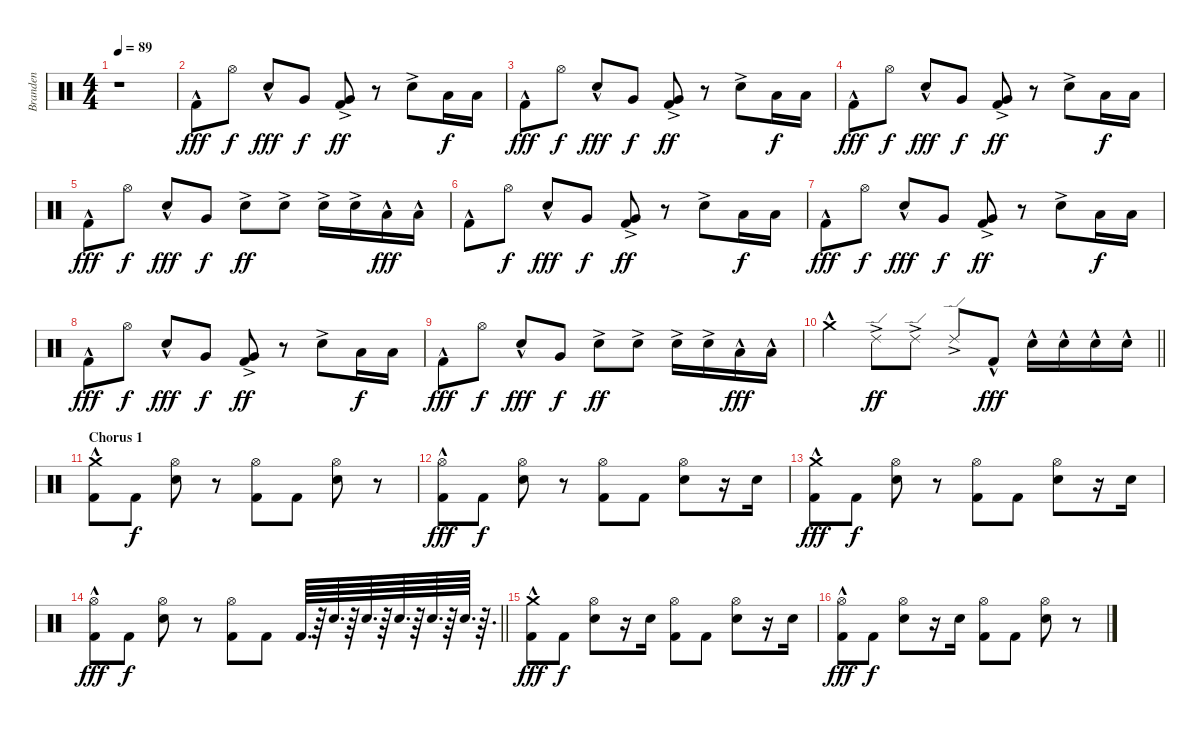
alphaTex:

\track ("Branden" "Branden") {instrument percussion}
\staff {score}
\articulation defaults
\ts (4 4)
\tempo 89
\clef neutral
\ks c
r.1{dy f} |
"Kick (hit) 2"{hac}.8{dy fff} "Hi-Hat (open)".8{dy f} "Electric Snare (hit)"{hac}.8{dy fff} "Very Low Tom (hit)".8{dy f} ("Very Low Tom (hit)" "Kick (hit) 2"{ac}).8{dy ff} r.8 "Electric Snare (hit)"{ac}.8 "Low Floor Tom (hit)".16{dy f} "Low Floor Tom (hit)".16 |
"Kick (hit) 2"{hac}.8{dy fff} "Hi-Hat (open)".8{dy f} "Electric Snare (hit)"{hac}.8{dy fff} "Very Low Tom (hit)".8{dy f} ("Very Low Tom (hit)" "Kick (hit) 2"{ac}).8{dy ff} r.8 "Electric Snare (hit)"{ac}.8 "Low Floor Tom (hit)".16{dy f} "Low Floor Tom (hit)".16 |
"Kick (hit) 2"{hac}.8{dy fff} "Hi-Hat (open)".8{dy f} "Electric Snare (hit)"{hac}.8{dy fff} "Very Low Tom (hit)".8{dy f} ("Very Low Tom (hit)" "Kick (hit) 2"{ac}).8{dy ff} r.8 "Electric Snare (hit)"{ac}.8 "Low Floor Tom (hit)".16{dy f} "Low Floor Tom (hit)".16 |
"Kick (hit) 2"{hac}.8{dy fff} "Hi-Hat (open)".8{dy f} "Electric Snare (hit)"{hac}.8{dy fff} "Very Low Tom (hit)".8{dy f} "Electric Snare (hit)"{ac}.8{dy ff} "Electric Snare (hit)"{ac}.8 "Electric Snare (hit)"{ac}.16 "Electric Snare (hit)"{ac}.16 "Low Floor Tom (hit)"{hac}.16{dy fff} "Low Floor Tom (hit)"{hac}.16 |
"Kick (hit) 2"{hac}.8 "Hi-Hat (open)".8{dy f} "Electric Snare (hit)"{hac}.8{dy fff} "Very Low Tom (hit)".8{dy f} ("Very Low Tom (hit)" "Kick (hit) 2"{ac}).8{dy ff} r.8 "Electric Snare (hit)"{ac}.8 "Low Floor Tom (hit)".16{dy f} "Low Floor Tom (hit)".16 |
"Kick (hit) 2"{hac}.8{dy fff} "Hi-Hat (open)".8{dy f} "Electric Snare (hit)"{hac}.8{dy fff} "Very Low Tom (hit)".8{dy f} ("Very Low Tom (hit)" "Kick (hit) 2"{ac}).8{dy ff} r.8 "Electric Snare (hit)"{ac}.8 "Low Floor Tom (hit)".16{dy f} "Low Floor Tom (hit)".16 |
"Kick (hit) 2"{hac}.8{dy fff} "Hi-Hat (open)".8{dy f} "Electric Snare (hit)"{hac}.8{dy fff} "Very Low Tom (hit)".8{dy f} ("Very Low Tom (hit)" "Kick (hit) 2"{ac}).8{dy ff} r.8 "Electric Snare (hit)"{ac}.8 "Low Floor Tom (hit)".16{dy f} "Low Floor Tom (hit)".16 |
"Kick (hit) 2"{hac}.8{dy fff} "Hi-Hat (open)".8{dy f} "Electric Snare (hit)"{hac}.8{dy fff} "Very Low Tom (hit)".8{dy f} "Electric Snare (hit)"{ac}.8{dy ff} "Electric Snare (hit)"{ac}.8 "Electric Snare (hit)"{ac}.16 "Electric Snare (hit)"{ac}.16 "Low Floor Tom (hit)"{hac}.16{dy fff} "Low Floor Tom (hit)"{hac}.16 |
\barLineRight lightlight "Crash medium (hit)"{hac}.4 "Ride (edge) 2"{ac}.8{dy ff} "Ride (edge) 2"{ac}.8 "Ride (edge) 2"{ac}.8 "Kick (hit) 2"{hac}.8{dy fff} "Electric Snare (hit)"{hac}.16 "Electric Snare (hit)"{hac}.16 "Electric Snare (hit)"{hac}.16 "Electric Snare (hit)"{hac}.16
|
\section ("" "Chorus 1")
("Crash medium (hit)"{hac} "Kick (hit) 2").8 "Kick (hit) 2".8{dy f} ("Hi-Hat (open)" "Electric Snare (hit)").8 r.8 ("Hi-Hat (open)" "Kick (hit) 2").8 "Kick (hit) 2".8 ("Hi-Hat (open)" "Electric Snare (hit)").8 r.8 |
("Hi-Hat (open)"{hac} "Kick (hit) 2").8{dy fff} "Kick (hit) 2".8{dy f} ("Hi-Hat (open)" "Electric Snare (hit)").8 r.8 ("Hi-Hat (open)" "Kick (hit) 2").8 "Kick (hit) 2".8 ("Hi-Hat (open)" "Electric Snare (hit)").8 r.16 "Electric Snare (hit)".16 |
("Crash medium (hit)"{hac} "Kick (hit) 2").8{dy fff} "Kick (hit) 2".8{dy f} ("Hi-Hat (open)" "Electric Snare (hit)").8 r.8 ("Hi-Hat (open)" "Kick (hit) 2").8 "Kick (hit) 2".8 ("Hi-Hat (open)" "Electric Snare (hit)").8 r.16 "Electric Snare (hit)".16 |
\barLineRight lightlight
("Hi-Hat (open)" "Kick (hit) 2"{hac}).8{dy fff} "Kick (hit) 2".8{dy f} ("Hi-Hat (open)" "Electric Snare (hit)").8 r.8 ("Hi-Hat (open)" "Kick (hit) 2").8 "Kick (hit) 2".8 "Kick (hit) 2".64{d} r.64 "Electric Snare (hit)".64{d} r.64 "Electric Snare (hit)".64{d} r.64 "Electric Snare (hit)".64{d} r.64 "Electric Snare (hit)".64{d} r.64 "Electric Snare (hit)".64{d} r.64{d} |
("Crash medium (hit)"{hac} "Kick (hit) 2").8{dy fff} "Kick (hit) 2".8{dy f} ("Hi-Hat (open)" "Electric Snare (hit)").8 r.16 "Electric Snare (hit)".16 ("Hi-Hat (open)" "Kick (hit) 2").8 "Kick (hit) 2".8 ("Hi-Hat (open)" "Electric Snare (hit)").8 r.16 "Electric Snare (hit)".16 |
("Hi-Hat (open)"{hac} "Kick (hit) 2").8{dy fff} "Kick (hit) 2".8{dy f} ("Hi-Hat (open)" "Electric Snare (hit)").8 r.16 "Electric Snare (hit)".16 ("Hi-Hat (open)" "Kick (hit) 2").8 "Kick (hit) 2".8 ("Hi-Hat (open)" "Electric Snare (hit)").8 r.8
